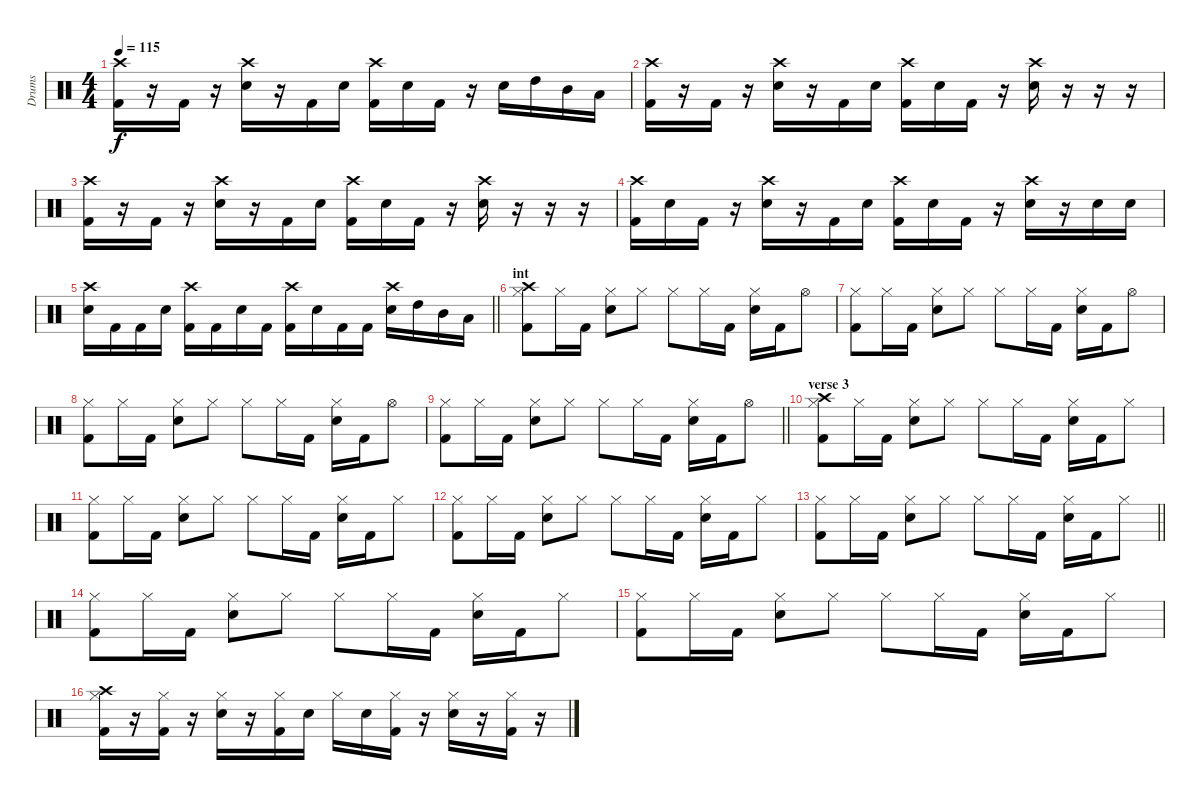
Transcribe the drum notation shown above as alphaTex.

\track ("Drums" "Drums") {instrument percussion}
\staff {score}
\articulation defaults
\ts (4 4)
\tempo 115
\clef neutral
\ks c
("Crash high (hit)" "Kick (hit) 2").16{dy f} r.16 "Kick (hit) 2".16 r.16 ("Crash high (hit)" "Snare (hit) 2").16 r.16 "Kick (hit) 2".16 "Snare (hit) 2".16 ("Crash high (hit)" "Kick (hit) 2").16 "Snare (hit) 2".16 "Kick (hit) 2".16 r.16 "Snare (hit) 2".16 "High Tom (hit)".16 "Mid Tom (hit)".16 "Low Tom (hit)".16 |
("Crash high (hit)" "Kick (hit) 2").16 r.16 "Kick (hit) 2".16 r.16 ("Crash high (hit)" "Snare (hit) 2").16 r.16 "Kick (hit) 2".16 "Snare (hit) 2".16 ("Crash high (hit)" "Kick (hit) 2").16 "Snare (hit) 2".16 "Kick (hit) 2".16 r.16 ("Crash high (hit)" "Snare (hit) 2").16 r.16 r.16 r.16 |
("Crash high (hit)" "Kick (hit) 2").16 r.16 "Kick (hit) 2".16 r.16 ("Crash high (hit)" "Snare (hit) 2").16 r.16 "Kick (hit) 2".16 "Snare (hit) 2".16 ("Crash high (hit)" "Kick (hit) 2").16 "Snare (hit) 2".16 "Kick (hit) 2".16 r.16 ("Crash high (hit)" "Snare (hit) 2").16 r.16 r.16 r.16 |
("Crash high (hit)" "Kick (hit) 2").16 "Snare (hit) 2".16 "Kick (hit) 2".16 r.16 ("Crash high (hit)" "Snare (hit) 2").16 r.16 "Kick (hit) 2".16 "Snare (hit) 2".16 ("Crash high (hit)" "Kick (hit) 2").16 "Snare (hit) 2".16 "Kick (hit) 2".16 r.16 ("Crash high (hit)" "Snare (hit) 2").16 r.16 "Snare (hit) 2".16 "Snare (hit) 2".16 |
\barLineRight lightlight
("Crash high (hit)" "Snare (hit) 2").16 "Kick (hit) 2".16 "Kick (hit) 2".16 "Snare (hit) 2".16 ("Crash high (hit)" "Kick (hit) 2").16 "Kick (hit) 2".16 "Snare (hit) 2".16 "Kick (hit) 2".16 ("Crash high (hit)" "Kick (hit) 2").16 "Snare (hit) 2".16 "Kick (hit) 2".16 "Kick (hit) 2".16 ("Crash high (hit)" "Snare (hit) 2").16 "High Tom (hit)".16 "Mid Tom (hit)".16 "Low Tom (hit)".16 |
\section ("" "int")
("Crash high (hit)" "Hi-Hat (closed)" "Kick (hit) 2").8 "Hi-Hat (closed)".16 "Kick (hit) 2".16 ("Hi-Hat (closed)" "Snare (hit) 2").8 "Hi-Hat (closed)".8 "Hi-Hat (closed)".8 "Hi-Hat (closed)".16 "Kick (hit) 2".16 ("Hi-Hat (closed)" "Snare (hit) 2").16 "Kick (hit) 2".16 "Hi-Hat (open)".8 |
("Hi-Hat (closed)" "Kick (hit) 2").8 "Hi-Hat (closed)".16 "Kick (hit) 2".16 ("Hi-Hat (closed)" "Snare (hit) 2").8 "Hi-Hat (closed)".8 "Hi-Hat (closed)".8 "Hi-Hat (closed)".16 "Kick (hit) 2".16 ("Hi-Hat (closed)" "Snare (hit) 2").16 "Kick (hit) 2".16 "Hi-Hat (open)".8 |
("Hi-Hat (closed)" "Kick (hit) 2").8 "Hi-Hat (closed)".16 "Kick (hit) 2".16 ("Hi-Hat (closed)" "Snare (hit) 2").8 "Hi-Hat (closed)".8 "Hi-Hat (closed)".8 "Hi-Hat (closed)".16 "Kick (hit) 2".16 ("Hi-Hat (closed)" "Snare (hit) 2").16 "Kick (hit) 2".16 "Hi-Hat (open)".8 |
\barLineRight lightlight
("Hi-Hat (closed)" "Kick (hit) 2").8 "Hi-Hat (closed)".16 "Kick (hit) 2".16 ("Hi-Hat (closed)" "Snare (hit) 2").8 "Hi-Hat (closed)".8 "Hi-Hat (closed)".8 "Hi-Hat (closed)".16 "Kick (hit) 2".16 ("Hi-Hat (closed)" "Snare (hit) 2").16 "Kick (hit) 2".16 "Hi-Hat (open)".8 |
\section ("" "verse 3")
("Crash high (hit)" "Hi-Hat (closed)" "Kick (hit) 2").8 "Hi-Hat (closed)".16 "Kick (hit) 2".16 ("Hi-Hat (closed)" "Snare (hit) 2").8 "Hi-Hat (closed)".8 "Hi-Hat (closed)".8 "Hi-Hat (closed)".16 "Kick (hit) 2".16 ("Hi-Hat (closed)" "Snare (hit) 2").16 "Kick (hit) 2".16 "Hi-Hat (closed)".8 |
("Hi-Hat (closed)" "Kick (hit) 2").8 "Hi-Hat (closed)".16 "Kick (hit) 2".16 ("Hi-Hat (closed)" "Snare (hit) 2").8 "Hi-Hat (closed)".8 "Hi-Hat (closed)".8 "Hi-Hat (closed)".16 "Kick (hit) 2".16 ("Hi-Hat (closed)" "Snare (hit) 2").16 "Kick (hit) 2".16 "Hi-Hat (closed)".8 |
("Hi-Hat (closed)" "Kick (hit) 2").8 "Hi-Hat (closed)".16 "Kick (hit) 2".16 ("Hi-Hat (closed)" "Snare (hit) 2").8 "Hi-Hat (closed)".8 "Hi-Hat (closed)".8 "Hi-Hat (closed)".16 "Kick (hit) 2".16 ("Hi-Hat (closed)" "Snare (hit) 2").16 "Kick (hit) 2".16 "Hi-Hat (closed)".8 |
\barLineRight lightlight
("Hi-Hat (closed)" "Kick (hit) 2").8 "Hi-Hat (closed)".16 "Kick (hit) 2".16 ("Hi-Hat (closed)" "Snare (hit) 2").8 "Hi-Hat (closed)".8 "Hi-Hat (closed)".8 "Hi-Hat (closed)".16 "Kick (hit) 2".16 ("Hi-Hat (closed)" "Snare (hit) 2").16 "Kick (hit) 2".16 "Hi-Hat (closed)".8 |
("Hi-Hat (closed)" "Kick (hit) 2").8 "Hi-Hat (closed)".16 "Kick (hit) 2".16 ("Hi-Hat (closed)" "Snare (hit) 2").8 "Hi-Hat (closed)".8 "Hi-Hat (closed)".8 "Hi-Hat (closed)".16 "Kick (hit) 2".16 ("Hi-Hat (closed)" "Snare (hit) 2").16 "Kick (hit) 2".16 "Hi-Hat (closed)".8 |
("Hi-Hat (closed)" "Kick (hit) 2").8 "Hi-Hat (closed)".16 "Kick (hit) 2".16 ("Hi-Hat (closed)" "Snare (hit) 2").8 "Hi-Hat (closed)".8 "Hi-Hat (closed)".8 "Hi-Hat (closed)".16 "Kick (hit) 2".16 ("Hi-Hat (closed)" "Snare (hit) 2").16 "Kick (hit) 2".16 "Hi-Hat (closed)".8 |
("Crash high (hit)" "Hi-Hat (closed)" "Kick (hit) 2").16 r.16 ("Hi-Hat (closed)" "Kick (hit) 2").16 r.16 ("Hi-Hat (closed)" "Snare (hit) 2").16 r.16 ("Hi-Hat (closed)" "Kick (hit) 2").16 "Snare (hit) 2".16 "Hi-Hat (closed)".16 "Snare (hit) 2".16 ("Hi-Hat (closed)" "Kick (hit) 2").16 r.16 ("Hi-Hat (closed)" "Snare (hit) 2").16 r.16 ("Hi-Hat (closed)" "Kick (hit) 2").16 r.16
